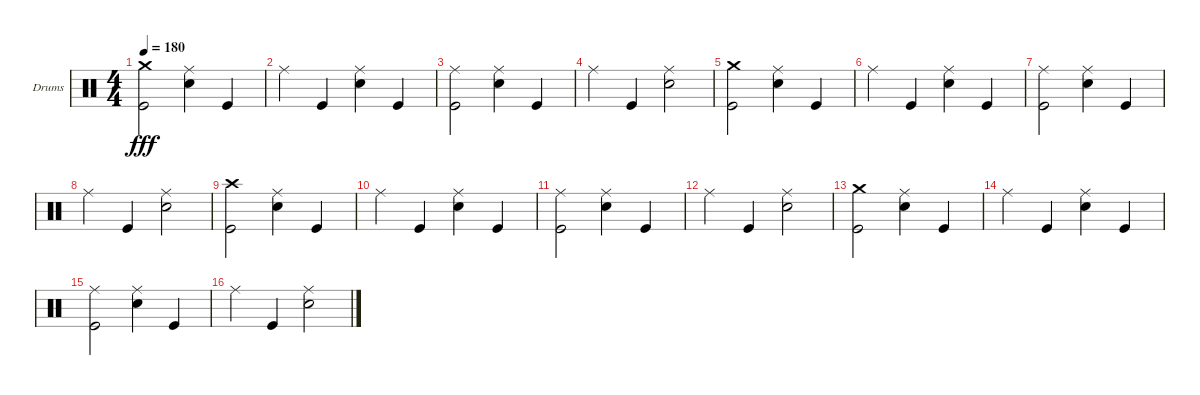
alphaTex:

\defaultSystemsLayout 4
\bracketExtendMode groupsimilarinstruments
\firstSystemTrackNameOrientation horizontal
\otherSystemsTrackNameOrientation horizontal
\track ("Барабаны" "Drums") {instrument percussion}
\staff {score}
\articulation defaults
\ts (4 4)
\tempo 180
\clef neutral
\ks c
("Crash medium (hit)" "Kick (hit)").2{dy fff} ("Ride (middle)" "Snare (hit) 2").4 "Kick (hit)".4 |
"Ride (middle)".4 "Kick (hit)".4 ("Ride (middle)" "Snare (hit) 2").4 "Kick (hit)".4 |
("Ride (middle)" "Kick (hit)").2 ("Ride (middle)" "Snare (hit) 2").4 "Kick (hit)".4 |
"Ride (middle)".4 "Kick (hit)".4 ("Ride (middle)" "Snare (hit) 2").2 |
("Crash medium (hit)" "Kick (hit)").2 ("Ride (middle)" "Snare (hit) 2").4 "Kick (hit)".4 |
"Ride (middle)".4 "Kick (hit)".4 ("Ride (middle)" "Snare (hit) 2").4 "Kick (hit)".4 |
("Ride (middle)" "Kick (hit)").2 ("Ride (middle)" "Snare (hit) 2").4 "Kick (hit)".4 |
"Ride (middle)".4 "Kick (hit)".4 ("Ride (middle)" "Snare (hit) 2").2 |
("Crash high (hit)" "Kick (hit)").2 ("Ride (middle)" "Snare (hit) 2").4 "Kick (hit)".4 |
"Ride (middle)".4 "Kick (hit)".4 ("Ride (middle)" "Snare (hit) 2").4 "Kick (hit)".4 |
("Ride (middle)" "Kick (hit)").2 ("Ride (middle)" "Snare (hit) 2").4 "Kick (hit)".4 |
"Ride (middle)".4 "Kick (hit)".4 ("Ride (middle)" "Snare (hit) 2").2 |
("Crash medium (hit)" "Kick (hit)").2 ("Ride (middle)" "Snare (hit) 2").4 "Kick (hit)".4 |
"Ride (middle)".4 "Kick (hit)".4 ("Ride (middle)" "Snare (hit) 2").4 "Kick (hit)".4 |
("Ride (middle)" "Kick (hit)").2 ("Ride (middle)" "Snare (hit) 2").4 "Kick (hit)".4 |
"Ride (middle)".4 "Kick (hit)".4 ("Ride (middle)" "Snare (hit) 2").2
